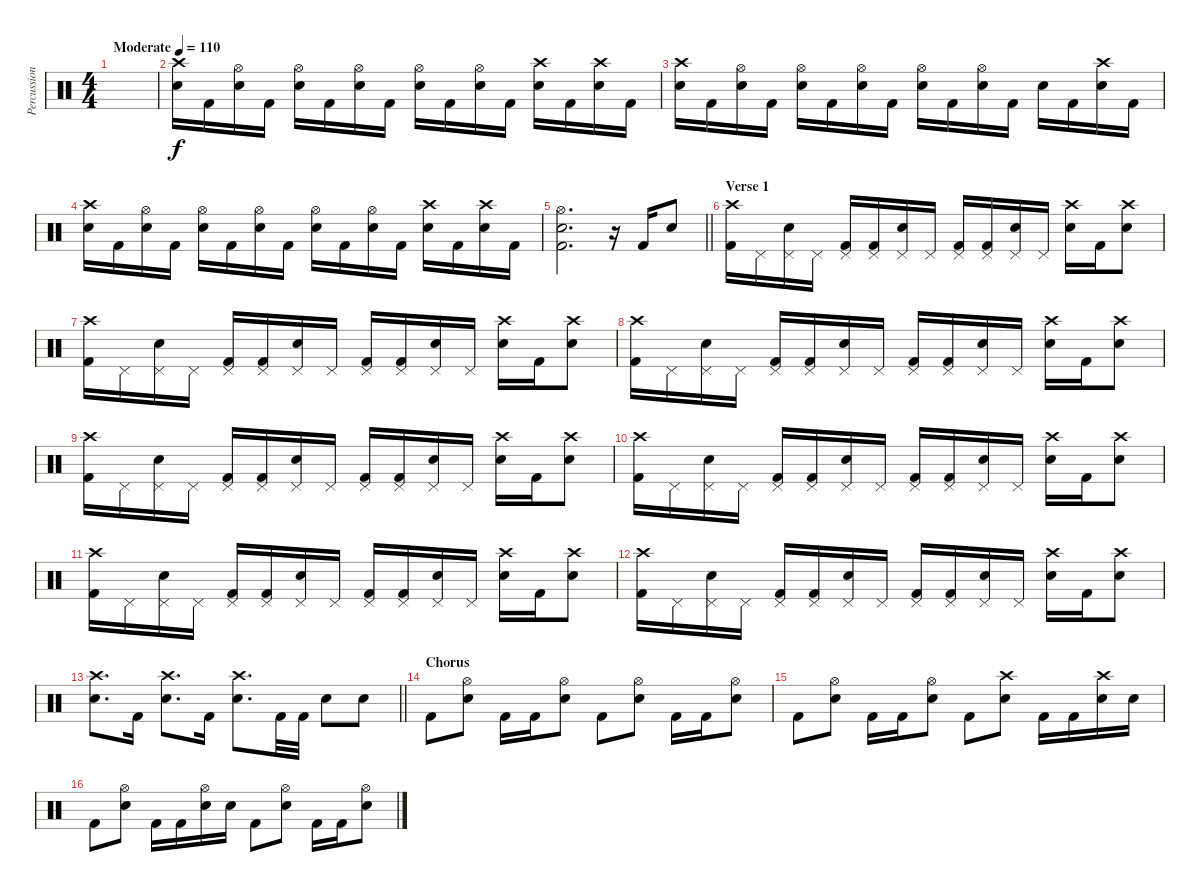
\track ("Percussion" "Percussion") {instrument percussion}
\staff {score}
\articulation defaults
\ts (4 4)
\tempo (110 "Moderate")
\clef neutral
\ks c
|
("Electric Snare (hit)" "Crash high (hit)").16 "Kick (hit) 2".16 ("Electric Snare (hit)" "Hi-Hat (open)").16 "Kick (hit) 2".16 ("Electric Snare (hit)" "Hi-Hat (open)").16 "Kick (hit) 2".16 ("Electric Snare (hit)" "Hi-Hat (open)").16 "Kick (hit) 2".16 ("Electric Snare (hit)" "Hi-Hat (open)").16 "Kick (hit) 2".16 ("Electric Snare (hit)" "Hi-Hat (open)").16 "Kick (hit) 2".16 ("Electric Snare (hit)" "Crash high (hit)").16 "Kick (hit) 2".16 ("Electric Snare (hit)" "Crash high (hit)").16 "Kick (hit) 2".16 |
("Electric Snare (hit)" "Crash high (hit)").16 "Kick (hit) 2".16 ("Electric Snare (hit)" "Hi-Hat (open)").16 "Kick (hit) 2".16 ("Electric Snare (hit)" "Hi-Hat (open)").16 "Kick (hit) 2".16 ("Electric Snare (hit)" "Hi-Hat (open)").16 "Kick (hit) 2".16 ("Electric Snare (hit)" "Hi-Hat (open)").16 "Kick (hit) 2".16 ("Electric Snare (hit)" "Hi-Hat (open)").16 "Kick (hit) 2".16 "Electric Snare (hit)".16 "Kick (hit) 2".16 ("Electric Snare (hit)" "Crash high (hit)").16 "Kick (hit) 2".16 |
("Electric Snare (hit)" "Crash high (hit)").16 "Kick (hit) 2".16 ("Electric Snare (hit)" "Hi-Hat (open)").16 "Kick (hit) 2".16 ("Electric Snare (hit)" "Hi-Hat (open)").16 "Kick (hit) 2".16 ("Electric Snare (hit)" "Hi-Hat (open)").16 "Kick (hit) 2".16 ("Electric Snare (hit)" "Hi-Hat (open)").16 "Kick (hit) 2".16 ("Electric Snare (hit)" "Hi-Hat (open)").16 "Kick (hit) 2".16 ("Electric Snare (hit)" "Crash high (hit)").16 "Kick (hit) 2".16 ("Electric Snare (hit)" "Crash high (hit)").16 "Kick (hit) 2".16 |
\barLineRight lightlight
("Kick (hit) 2" "Electric Snare (hit)" "Hi-Hat (open)").2{d} r.16 "Kick (hit) 2".16 "Electric Snare (hit)".8 |
\section ("" "Verse 1")
("Kick (hit) 2" "Crash high (hit)").16 "Pedal Hi-Hat (hit)".16 ("Electric Snare (hit)" "Pedal Hi-Hat (hit)").16 "Pedal Hi-Hat (hit)".16 ("Kick (hit) 2" "Pedal Hi-Hat (hit)").16 ("Kick (hit) 2" "Pedal Hi-Hat (hit)").16 ("Electric Snare (hit)" "Pedal Hi-Hat (hit)").16 "Pedal Hi-Hat (hit)".16 ("Kick (hit) 2" "Pedal Hi-Hat (hit)").16 ("Kick (hit) 2" "Pedal Hi-Hat (hit)").16 ("Electric Snare (hit)" "Pedal Hi-Hat (hit)").16 "Pedal Hi-Hat (hit)".16 ("Electric Snare (hit)" "Crash high (hit)").16 "Kick (hit) 2".16 ("Electric Snare (hit)" "Crash high (hit)").8 |
("Kick (hit) 2" "Crash high (hit)").16 "Pedal Hi-Hat (hit)".16 ("Electric Snare (hit)" "Pedal Hi-Hat (hit)").16 "Pedal Hi-Hat (hit)".16 ("Kick (hit) 2" "Pedal Hi-Hat (hit)").16 ("Kick (hit) 2" "Pedal Hi-Hat (hit)").16 ("Electric Snare (hit)" "Pedal Hi-Hat (hit)").16 "Pedal Hi-Hat (hit)".16 ("Kick (hit) 2" "Pedal Hi-Hat (hit)").16 ("Kick (hit) 2" "Pedal Hi-Hat (hit)").16 ("Electric Snare (hit)" "Pedal Hi-Hat (hit)").16 "Pedal Hi-Hat (hit)".16 ("Electric Snare (hit)" "Crash high (hit)").16 "Kick (hit) 2".16 ("Electric Snare (hit)" "Crash high (hit)").8 |
("Kick (hit) 2" "Crash high (hit)").16 "Pedal Hi-Hat (hit)".16 ("Electric Snare (hit)" "Pedal Hi-Hat (hit)").16 "Pedal Hi-Hat (hit)".16 ("Kick (hit) 2" "Pedal Hi-Hat (hit)").16 ("Kick (hit) 2" "Pedal Hi-Hat (hit)").16 ("Electric Snare (hit)" "Pedal Hi-Hat (hit)").16 "Pedal Hi-Hat (hit)".16 ("Kick (hit) 2" "Pedal Hi-Hat (hit)").16 ("Kick (hit) 2" "Pedal Hi-Hat (hit)").16 ("Electric Snare (hit)" "Pedal Hi-Hat (hit)").16 "Pedal Hi-Hat (hit)".16 ("Electric Snare (hit)" "Crash high (hit)").16 "Kick (hit) 2".16 ("Electric Snare (hit)" "Crash high (hit)").8 |
("Kick (hit) 2" "Crash high (hit)").16 "Pedal Hi-Hat (hit)".16 ("Electric Snare (hit)" "Pedal Hi-Hat (hit)").16 "Pedal Hi-Hat (hit)".16 ("Kick (hit) 2" "Pedal Hi-Hat (hit)").16 ("Kick (hit) 2" "Pedal Hi-Hat (hit)").16 ("Electric Snare (hit)" "Pedal Hi-Hat (hit)").16 "Pedal Hi-Hat (hit)".16 ("Kick (hit) 2" "Pedal Hi-Hat (hit)").16 ("Kick (hit) 2" "Pedal Hi-Hat (hit)").16 ("Electric Snare (hit)" "Pedal Hi-Hat (hit)").16 "Pedal Hi-Hat (hit)".16 ("Electric Snare (hit)" "Crash high (hit)").16 "Kick (hit) 2".16 ("Electric Snare (hit)" "Crash high (hit)").8 |
("Kick (hit) 2" "Crash high (hit)").16 "Pedal Hi-Hat (hit)".16 ("Electric Snare (hit)" "Pedal Hi-Hat (hit)").16 "Pedal Hi-Hat (hit)".16 ("Kick (hit) 2" "Pedal Hi-Hat (hit)").16 ("Kick (hit) 2" "Pedal Hi-Hat (hit)").16 ("Electric Snare (hit)" "Pedal Hi-Hat (hit)").16 "Pedal Hi-Hat (hit)".16 ("Kick (hit) 2" "Pedal Hi-Hat (hit)").16 ("Kick (hit) 2" "Pedal Hi-Hat (hit)").16 ("Electric Snare (hit)" "Pedal Hi-Hat (hit)").16 "Pedal Hi-Hat (hit)".16 ("Electric Snare (hit)" "Crash high (hit)").16 "Kick (hit) 2".16 ("Electric Snare (hit)" "Crash high (hit)").8 |
("Kick (hit) 2" "Crash high (hit)").16 "Pedal Hi-Hat (hit)".16 ("Electric Snare (hit)" "Pedal Hi-Hat (hit)").16 "Pedal Hi-Hat (hit)".16 ("Kick (hit) 2" "Pedal Hi-Hat (hit)").16 ("Kick (hit) 2" "Pedal Hi-Hat (hit)").16 ("Electric Snare (hit)" "Pedal Hi-Hat (hit)").16 "Pedal Hi-Hat (hit)".16 ("Kick (hit) 2" "Pedal Hi-Hat (hit)").16 ("Kick (hit) 2" "Pedal Hi-Hat (hit)").16 ("Electric Snare (hit)" "Pedal Hi-Hat (hit)").16 "Pedal Hi-Hat (hit)".16 ("Electric Snare (hit)" "Crash high (hit)").16 "Kick (hit) 2".16 ("Electric Snare (hit)" "Crash high (hit)").8 |
("Kick (hit) 2" "Crash high (hit)").16 "Pedal Hi-Hat (hit)".16 ("Electric Snare (hit)" "Pedal Hi-Hat (hit)").16 "Pedal Hi-Hat (hit)".16 ("Kick (hit) 2" "Pedal Hi-Hat (hit)").16 ("Kick (hit) 2" "Pedal Hi-Hat (hit)").16 ("Electric Snare (hit)" "Pedal Hi-Hat (hit)").16 "Pedal Hi-Hat (hit)".16 ("Kick (hit) 2" "Pedal Hi-Hat (hit)").16 ("Kick (hit) 2" "Pedal Hi-Hat (hit)").16 ("Electric Snare (hit)" "Pedal Hi-Hat (hit)").16 "Pedal Hi-Hat (hit)".16 ("Electric Snare (hit)" "Crash high (hit)").16 "Kick (hit) 2".16 ("Electric Snare (hit)" "Crash high (hit)").8 |
\barLineRight lightlight
("Electric Snare (hit)" "Crash high (hit)").8{d} "Kick (hit) 2".16 ("Electric Snare (hit)" "Crash high (hit)").8{d} "Kick (hit) 2".16 ("Electric Snare (hit)" "Crash high (hit)").8{d} "Kick (hit) 2".32 "Kick (hit) 2".32 "Electric Snare (hit)".8 "Electric Snare (hit)".8 |
\section ("" "Chorus")
"Kick (hit) 2".8 ("Electric Snare (hit)" "Hi-Hat (open)").8 "Kick (hit) 2".16 "Kick (hit) 2".16 ("Electric Snare (hit)" "Hi-Hat (open)").8 "Kick (hit) 2".8 ("Electric Snare (hit)" "Hi-Hat (open)").8 "Kick (hit) 2".16 "Kick (hit) 2".16 ("Electric Snare (hit)" "Hi-Hat (open)").8 |
"Kick (hit) 2".8 ("Electric Snare (hit)" "Hi-Hat (open)").8 "Kick (hit) 2".16 "Kick (hit) 2".16 ("Electric Snare (hit)" "Hi-Hat (open)").8 "Kick (hit) 2".8 ("Electric Snare (hit)" "Crash high (hit)").8 "Kick (hit) 2".16 "Kick (hit) 2".16 ("Electric Snare (hit)" "Crash high (hit)").16 "Electric Snare (hit)".16 |
"Kick (hit) 2".8 ("Electric Snare (hit)" "Hi-Hat (open)").8 "Kick (hit) 2".16 "Kick (hit) 2".16 ("Electric Snare (hit)" "Hi-Hat (open)").16 "Electric Snare (hit)".16 "Kick (hit) 2".8 ("Electric Snare (hit)" "Hi-Hat (open)").8 "Kick (hit) 2".16 "Kick (hit) 2".16 ("Electric Snare (hit)" "Hi-Hat (open)").8
